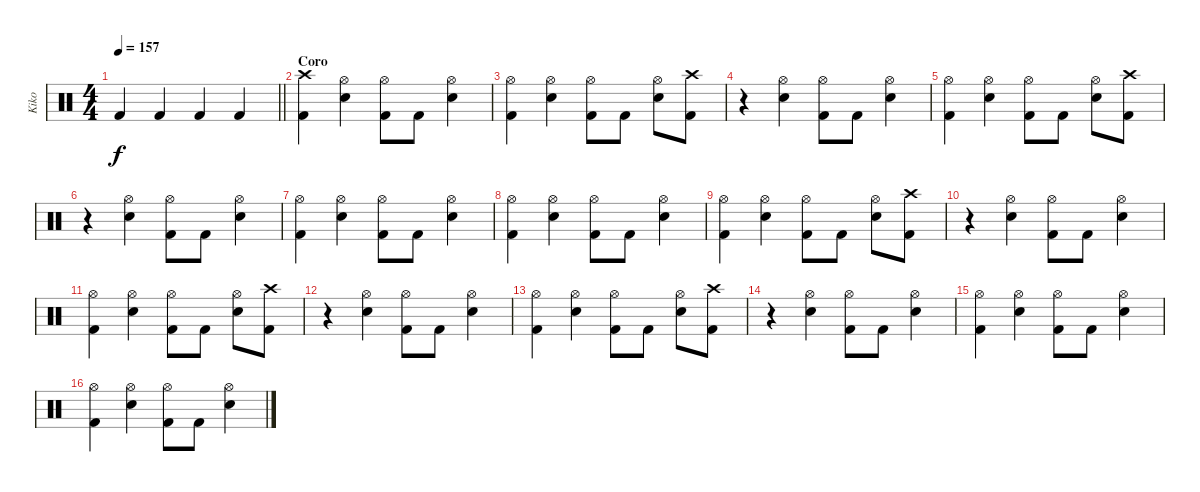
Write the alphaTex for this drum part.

\track ("Kiko" "Kiko") {instrument percussion}
\staff {score}
\articulation defaults
\ts (4 4)
\tempo 157
\clef neutral
\barLineRight lightlight
\ks c "Kick (hit) 2".4{dy f} "Kick (hit) 2".4 "Kick (hit) 2".4 "Kick (hit) 2".4
|
\section ("" "Coro")
("Crash high (hit)" "Kick (hit) 2").4 ("Hi-Hat (open)" "Electric Snare (hit)").4 ("Hi-Hat (open)" "Kick (hit) 2").8 "Kick (hit) 2".8 ("Hi-Hat (open)" "Electric Snare (hit)").4 |
("Hi-Hat (open)" "Kick (hit) 2").4 ("Hi-Hat (open)" "Electric Snare (hit)").4 ("Hi-Hat (open)" "Kick (hit) 2").8 "Kick (hit) 2".8 ("Hi-Hat (open)" "Electric Snare (hit)").8 ("Crash high (hit)" "Kick (hit) 2").8 |
r.4 ("Hi-Hat (open)" "Electric Snare (hit)").4 ("Hi-Hat (open)" "Kick (hit) 2").8 "Kick (hit) 2".8 ("Hi-Hat (open)" "Electric Snare (hit)").4 |
("Hi-Hat (open)" "Kick (hit) 2").4 ("Hi-Hat (open)" "Electric Snare (hit)").4 ("Hi-Hat (open)" "Kick (hit) 2").8 "Kick (hit) 2".8 ("Hi-Hat (open)" "Electric Snare (hit)").8 ("Crash high (hit)" "Kick (hit) 2").8 |
r.4 ("Hi-Hat (open)" "Electric Snare (hit)").4 ("Hi-Hat (open)" "Kick (hit) 2").8 "Kick (hit) 2".8 ("Hi-Hat (open)" "Electric Snare (hit)").4 |
("Hi-Hat (open)" "Kick (hit) 2").4 ("Hi-Hat (open)" "Electric Snare (hit)").4 ("Hi-Hat (open)" "Kick (hit) 2").8 "Kick (hit) 2".8 ("Hi-Hat (open)" "Electric Snare (hit)").4 |
("Hi-Hat (open)" "Kick (hit) 2").4 ("Hi-Hat (open)" "Electric Snare (hit)").4 ("Hi-Hat (open)" "Kick (hit) 2").8 "Kick (hit) 2".8 ("Hi-Hat (open)" "Electric Snare (hit)").4 |
("Hi-Hat (open)" "Kick (hit) 2").4 ("Hi-Hat (open)" "Electric Snare (hit)").4 ("Hi-Hat (open)" "Kick (hit) 2").8 "Kick (hit) 2".8 ("Hi-Hat (open)" "Electric Snare (hit)").8 ("Crash high (hit)" "Kick (hit) 2").8 |
r.4 ("Hi-Hat (open)" "Electric Snare (hit)").4 ("Hi-Hat (open)" "Kick (hit) 2").8 "Kick (hit) 2".8 ("Hi-Hat (open)" "Electric Snare (hit)").4 |
("Hi-Hat (open)" "Kick (hit) 2").4 ("Hi-Hat (open)" "Electric Snare (hit)").4 ("Hi-Hat (open)" "Kick (hit) 2").8 "Kick (hit) 2".8 ("Hi-Hat (open)" "Electric Snare (hit)").8 ("Crash high (hit)" "Kick (hit) 2").8 |
r.4 ("Hi-Hat (open)" "Electric Snare (hit)").4 ("Hi-Hat (open)" "Kick (hit) 2").8 "Kick (hit) 2".8 ("Hi-Hat (open)" "Electric Snare (hit)").4 |
("Hi-Hat (open)" "Kick (hit) 2").4 ("Hi-Hat (open)" "Electric Snare (hit)").4 ("Hi-Hat (open)" "Kick (hit) 2").8 "Kick (hit) 2".8 ("Hi-Hat (open)" "Electric Snare (hit)").8 ("Crash high (hit)" "Kick (hit) 2").8 |
r.4 ("Hi-Hat (open)" "Electric Snare (hit)").4 ("Hi-Hat (open)" "Kick (hit) 2").8 "Kick (hit) 2".8 ("Hi-Hat (open)" "Electric Snare (hit)").4 |
("Hi-Hat (open)" "Kick (hit) 2").4 ("Hi-Hat (open)" "Electric Snare (hit)").4 ("Hi-Hat (open)" "Kick (hit) 2").8 "Kick (hit) 2".8 ("Hi-Hat (open)" "Electric Snare (hit)").4 |
("Hi-Hat (open)" "Kick (hit) 2").4 ("Hi-Hat (open)" "Electric Snare (hit)").4 ("Hi-Hat (open)" "Kick (hit) 2").8 "Kick (hit) 2".8 ("Hi-Hat (open)" "Electric Snare (hit)").4
